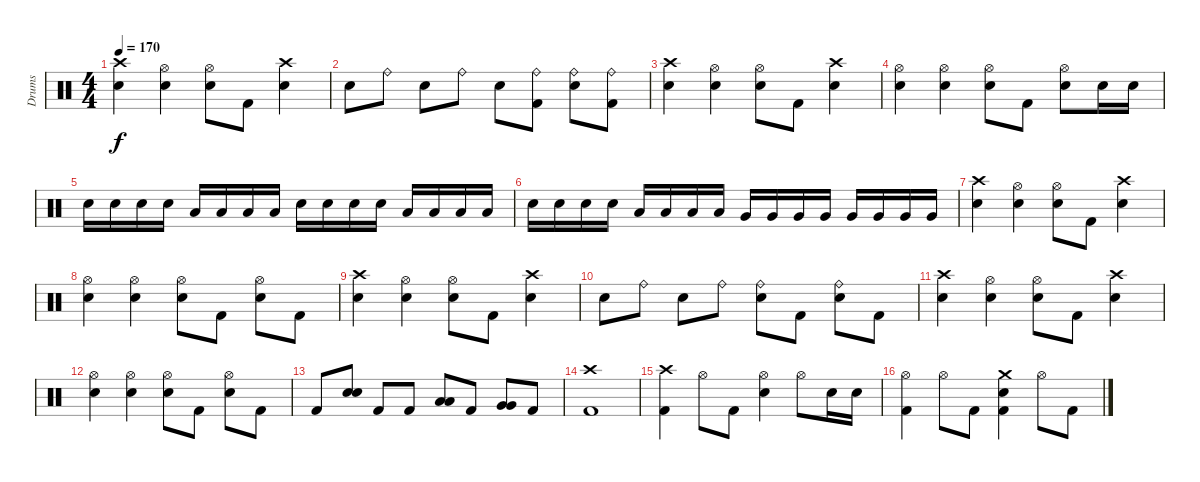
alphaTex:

\track ("Drums" "Drums") {instrument percussion}
\staff {score}
\articulation defaults
\ts (4 4)
\tempo 170
\clef neutral
\ks c
("Crash high (hit)" "Snare (hit) 2").4{dy f} ("Hi-Hat (open)" "Snare (hit) 2").4 ("Hi-Hat (open)" "Snare (hit) 2").8 "Kick (hit) 2".8 ("Crash high (hit)" "Snare (hit) 2").4 |
"Snare (hit) 2".8 "Ride (bell)".8 "Snare (hit) 2".8 "Ride (bell)".8 "Snare (hit) 2".8 ("Ride (bell)" "Kick (hit) 2").8 ("Ride (bell)" "Snare (hit) 2").8 ("Ride (bell)" "Kick (hit) 2").8 |
("Crash high (hit)" "Snare (hit) 2").4 ("Hi-Hat (open)" "Snare (hit) 2").4 ("Hi-Hat (open)" "Snare (hit) 2").8 "Kick (hit) 2".8 ("Crash high (hit)" "Snare (hit) 2").4 |
("Hi-Hat (open)" "Snare (hit) 2").4 ("Hi-Hat (open)" "Snare (hit) 2").4 ("Hi-Hat (open)" "Snare (hit) 2").8 "Kick (hit) 2".8 ("Hi-Hat (open)" "Snare (hit) 2").8 "Snare (hit) 2".16 "Snare (hit) 2".16 |
"Snare (hit) 2".16 "Snare (hit) 2".16 "Snare (hit) 2".16 "Snare (hit) 2".16 "Low Tom (hit)".16 "Low Tom (hit)".16 "Low Tom (hit)".16 "Low Tom (hit)".16 "Snare (hit) 2".16 "Snare (hit) 2".16 "Snare (hit) 2".16 "Snare (hit) 2".16 "Low Tom (hit)".16 "Low Tom (hit)".16 "Low Tom (hit)".16 "Low Tom (hit)".16 |
"Snare (hit) 2".16 "Snare (hit) 2".16 "Snare (hit) 2".16 "Snare (hit) 2".16 "Low Tom (hit)".16 "Low Tom (hit)".16 "Low Tom (hit)".16 "Low Tom (hit)".16 "Very Low Tom (hit)".16 "Very Low Tom (hit)".16 "Very Low Tom (hit)".16 "Very Low Tom (hit)".16 "Very Low Tom (hit)".16 "Very Low Tom (hit)".16 "Very Low Tom (hit)".16 "Very Low Tom (hit)".16 |
("Crash high (hit)" "Snare (hit) 2").4 ("Hi-Hat (open)" "Snare (hit) 2").4 ("Hi-Hat (open)" "Snare (hit) 2").8 "Kick (hit) 2".8 ("Crash high (hit)" "Snare (hit) 2").4 |
("Hi-Hat (open)" "Snare (hit) 2").4 ("Hi-Hat (open)" "Snare (hit) 2").4 ("Hi-Hat (open)" "Snare (hit) 2").8 "Kick (hit) 2".8 ("Hi-Hat (open)" "Snare (hit) 2").8 "Kick (hit) 2".8 |
("Crash high (hit)" "Snare (hit) 2").4 ("Hi-Hat (open)" "Snare (hit) 2").4 ("Hi-Hat (open)" "Snare (hit) 2").8 "Kick (hit) 2".8 ("Crash high (hit)" "Snare (hit) 2").4 |
"Snare (hit) 2".8 "Ride (bell)".8 "Snare (hit) 2".8 "Ride (bell)".8 ("Ride (bell)" "Snare (hit) 2").8 "Kick (hit) 2".8 ("Ride (bell)" "Snare (hit) 2").8 "Kick (hit) 2".8 |
("Crash high (hit)" "Snare (hit) 2").4 ("Hi-Hat (open)" "Snare (hit) 2").4 ("Hi-Hat (open)" "Snare (hit) 2").8 "Kick (hit) 2".8 ("Crash high (hit)" "Snare (hit) 2").4 |
("Hi-Hat (open)" "Snare (hit) 2").4 ("Hi-Hat (open)" "Snare (hit) 2").4 ("Hi-Hat (open)" "Snare (hit) 2").8 "Kick (hit) 2".8 ("Hi-Hat (open)" "Snare (hit) 2").8 "Kick (hit) 2".8 |
"Kick (hit) 2".8 ("Snare (hit) 2" "Snare (hit) 2").8 "Kick (hit) 2".8 "Kick (hit) 2".8 ("Low Tom (hit)" "Low Tom (hit)").8 "Kick (hit) 2".8 ("Very Low Tom (hit)" "Very Low Tom (hit)").8 "Kick (hit) 2".8 |
("Crash high (hit)" "Kick (hit) 2").1 |
("Crash high (hit)" "Kick (hit) 2").4 "Hi-Hat (open)".8 "Kick (hit) 2".8 ("Hi-Hat (open)" "Snare (hit) 2").4 "Hi-Hat (open)".8 "Snare (hit) 2".16 "Snare (hit) 2".16 |
("Hi-Hat (open)" "Kick (hit) 2").4 "Hi-Hat (open)".8 "Kick (hit) 2".8 ("Crash medium (hit)" "Snare (hit) 2" "Kick (hit) 2").4 "Hi-Hat (open)".8 "Kick (hit) 2".8
